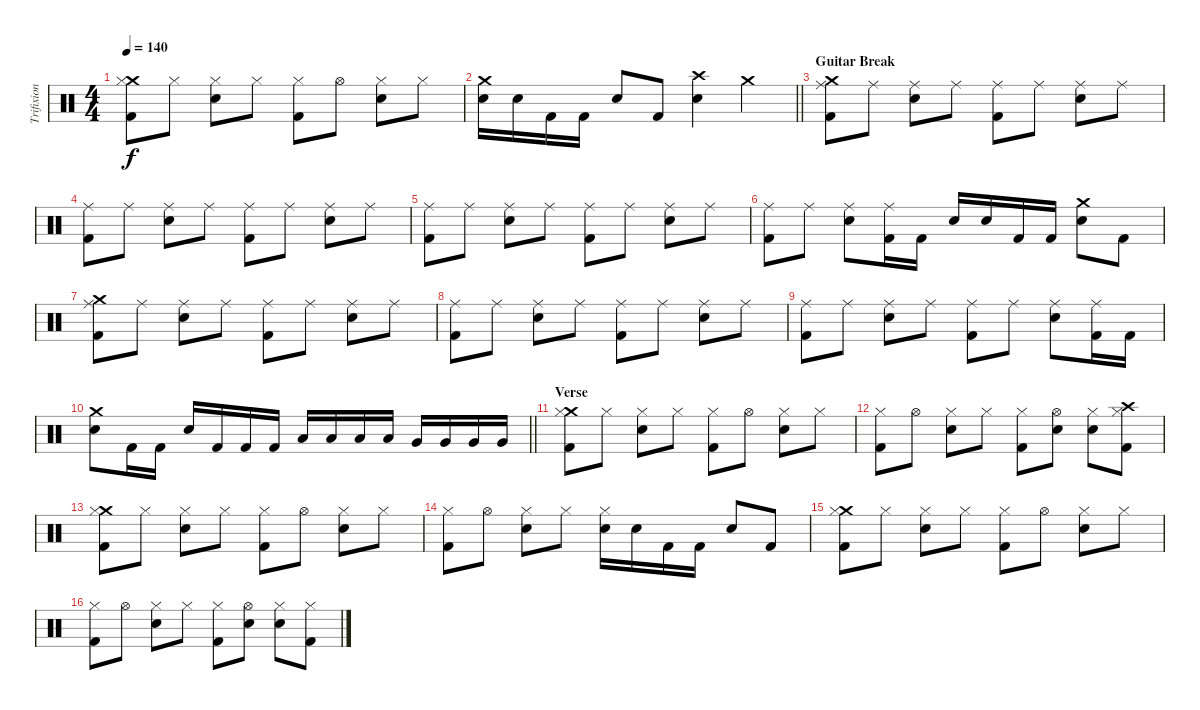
\track ("Trifixion of the Horned King" "Trifixion ") {instrument percussion}
\staff {score}
\articulation defaults
\ts (4 4)
\tempo 140
\clef neutral
\ks c
("Crash medium (hit)" "Hi-Hat (closed)" "Kick (hit) 2").8{dy f} "Hi-Hat (closed)".8 ("Hi-Hat (closed)" "Electric Snare (hit)").8 "Hi-Hat (closed)".8 ("Hi-Hat (closed)" "Kick (hit) 2").8 "Hi-Hat (open)".8 ("Hi-Hat (closed)" "Electric Snare (hit)").8 "Hi-Hat (closed)".8 |
\barLineRight lightlight
("Crash medium (hit)" "Electric Snare (hit)").16 "Electric Snare (hit)".16 "Kick (hit) 2".16 "Kick (hit) 2".16 "Electric Snare (hit)".8 "Kick (hit) 2".8 ("Crash high (hit)" "Electric Snare (hit)").4 "Crash medium (hit)".4 |
\section ("" "Guitar Break")
("Crash medium (hit)" "Ride (middle)" "Kick (hit) 2").8 "Ride (middle)".8 ("Ride (middle)" "Electric Snare (hit)").8 "Ride (middle)".8 ("Ride (middle)" "Kick (hit) 2").8 "Ride (middle)".8 ("Ride (middle)" "Electric Snare (hit)").8 "Ride (middle)".8 |
("Ride (middle)" "Kick (hit) 2").8 "Ride (middle)".8 ("Ride (middle)" "Electric Snare (hit)").8 "Ride (middle)".8 ("Ride (middle)" "Kick (hit) 2").8 "Ride (middle)".8 ("Ride (middle)" "Electric Snare (hit)").8 "Ride (middle)".8 |
("Ride (middle)" "Kick (hit) 2").8 "Ride (middle)".8 ("Ride (middle)" "Electric Snare (hit)").8 "Ride (middle)".8 ("Ride (middle)" "Kick (hit) 2").8 "Ride (middle)".8 ("Ride (middle)" "Electric Snare (hit)").8 "Ride (middle)".8 |
("Ride (middle)" "Kick (hit) 2").8 "Ride (middle)".8 ("Ride (middle)" "Electric Snare (hit)").8 ("Ride (middle)" "Kick (hit) 2").16 "Kick (hit) 2".16 "Electric Snare (hit)".16 "Electric Snare (hit)".16 "Kick (hit) 2".16 "Kick (hit) 2".16 ("Crash medium (hit)" "Electric Snare (hit)").8 "Kick (hit) 2".8 |
("Crash medium (hit)" "Ride (middle)" "Kick (hit) 2").8 "Ride (middle)".8 ("Ride (middle)" "Electric Snare (hit)").8 "Ride (middle)".8 ("Ride (middle)" "Kick (hit) 2").8 "Ride (middle)".8 ("Ride (middle)" "Electric Snare (hit)").8 "Ride (middle)".8 |
("Ride (middle)" "Kick (hit) 2").8 "Ride (middle)".8 ("Ride (middle)" "Electric Snare (hit)").8 "Ride (middle)".8 ("Ride (middle)" "Kick (hit) 2").8 "Ride (middle)".8 ("Ride (middle)" "Electric Snare (hit)").8 "Ride (middle)".8 |
("Ride (middle)" "Kick (hit) 2").8 "Ride (middle)".8 ("Ride (middle)" "Electric Snare (hit)").8 "Ride (middle)".8 ("Ride (middle)" "Kick (hit) 2").8 "Ride (middle)".8 ("Ride (middle)" "Electric Snare (hit)").8 ("Ride (middle)" "Kick (hit) 2").16 "Kick (hit) 2".16 |
\barLineRight lightlight
("Crash medium (hit)" "Electric Snare (hit)").8 "Kick (hit) 2".16 "Kick (hit) 2".16 "Electric Snare (hit)".16 "Kick (hit) 2".16 "Kick (hit) 2".16 "Kick (hit) 2".16 "Low Tom (hit)".16 "Low Tom (hit)".16 "Low Tom (hit)".16 "Low Tom (hit)".16 "Very Low Tom (hit)".16 "Very Low Tom (hit)".16 "Very Low Tom (hit)".16 "Very Low Tom (hit)".16 |
\section ("" "Verse")
("Crash medium (hit)" "Hi-Hat (closed)" "Kick (hit) 2").8 "Hi-Hat (closed)".8 ("Hi-Hat (closed)" "Electric Snare (hit)").8 "Hi-Hat (closed)".8 ("Hi-Hat (closed)" "Kick (hit) 2").8 "Hi-Hat (open)".8 ("Hi-Hat (closed)" "Electric Snare (hit)").8 "Hi-Hat (closed)".8 |
("Hi-Hat (closed)" "Kick (hit) 2").8 "Hi-Hat (open)".8 ("Hi-Hat (closed)" "Electric Snare (hit)").8 "Hi-Hat (closed)".8 ("Hi-Hat (closed)" "Kick (hit) 2").8 ("Hi-Hat (open)" "Electric Snare (hit)").8 ("Hi-Hat (closed)" "Electric Snare (hit)").8 ("Crash high (hit)" "Hi-Hat (closed)" "Kick (hit) 2").8 |
("Crash medium (hit)" "Hi-Hat (closed)" "Kick (hit) 2").8 "Hi-Hat (closed)".8 ("Hi-Hat (closed)" "Electric Snare (hit)").8 "Hi-Hat (closed)".8 ("Hi-Hat (closed)" "Kick (hit) 2").8 "Hi-Hat (open)".8 ("Hi-Hat (closed)" "Electric Snare (hit)").8 "Hi-Hat (closed)".8 |
("Hi-Hat (closed)" "Kick (hit) 2").8 "Hi-Hat (open)".8 ("Hi-Hat (closed)" "Electric Snare (hit)").8 "Hi-Hat (closed)".8 ("Hi-Hat (closed)" "Electric Snare (hit)").16 "Electric Snare (hit)".16 "Kick (hit) 2".16 "Kick (hit) 2".16 "Electric Snare (hit)".8 "Kick (hit) 2".8 |
("Crash medium (hit)" "Hi-Hat (closed)" "Kick (hit) 2").8 "Hi-Hat (closed)".8 ("Hi-Hat (closed)" "Electric Snare (hit)").8 "Hi-Hat (closed)".8 ("Hi-Hat (closed)" "Kick (hit) 2").8 "Hi-Hat (open)".8 ("Hi-Hat (closed)" "Electric Snare (hit)").8 "Hi-Hat (closed)".8 |
("Hi-Hat (closed)" "Kick (hit) 2").8 "Hi-Hat (open)".8 ("Hi-Hat (closed)" "Electric Snare (hit)").8 "Hi-Hat (closed)".8 ("Hi-Hat (closed)" "Kick (hit) 2").8 ("Hi-Hat (open)" "Electric Snare (hit)").8 ("Hi-Hat (closed)" "Electric Snare (hit)").8 ("Hi-Hat (closed)" "Kick (hit) 2").8
